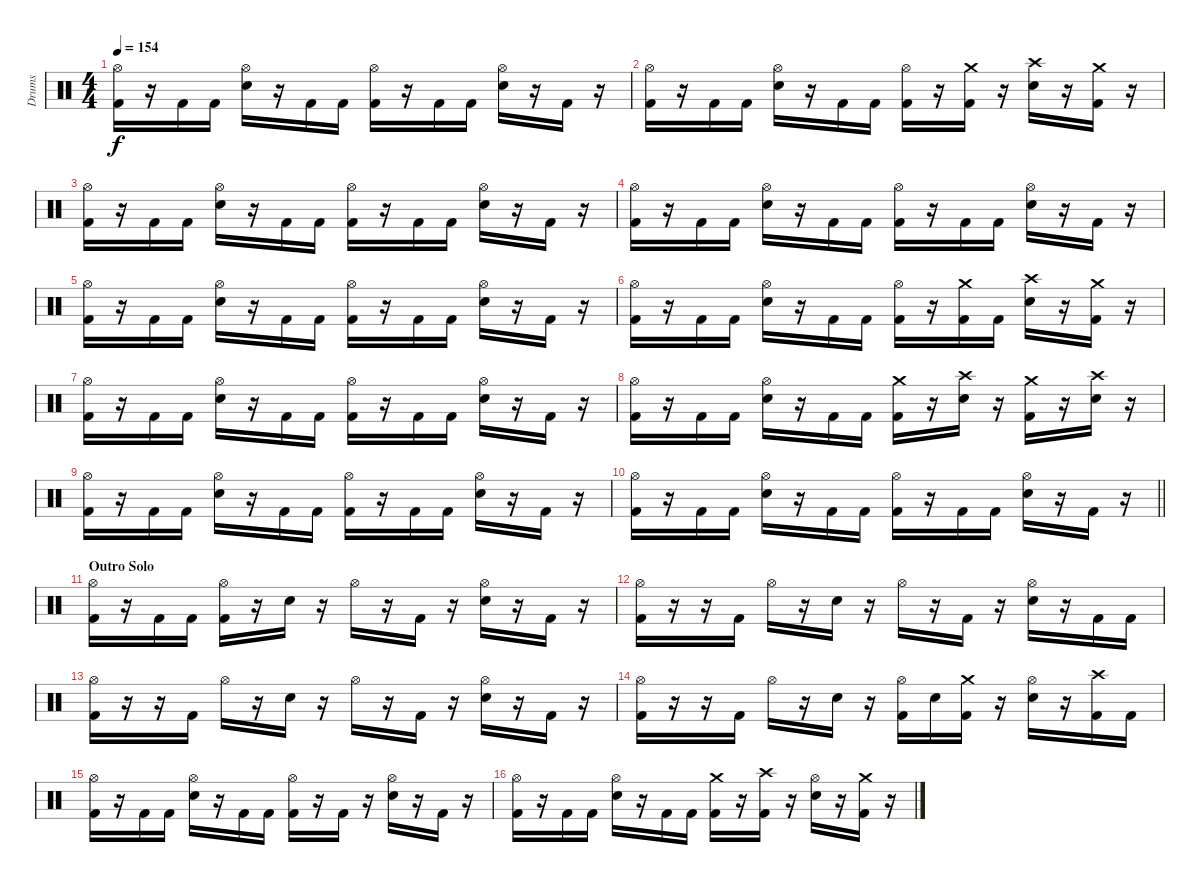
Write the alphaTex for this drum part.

\track ("Drums" "Drums") {instrument percussion}
\staff {score}
\articulation defaults
\ts (4 4)
\tempo 154
\clef neutral
\ks c
("Hi-Hat (open)" "Kick (hit) 2").16{dy f} r.16 "Kick (hit) 2".16 "Kick (hit) 2".16 ("Hi-Hat (open)" "Snare (hit) 2").16 r.16 "Kick (hit) 2".16 "Kick (hit) 2".16 ("Hi-Hat (open)" "Kick (hit) 2").16 r.16 "Kick (hit) 2".16 "Kick (hit) 2".16 ("Hi-Hat (open)" "Snare (hit) 2").16 r.16 "Kick (hit) 2".16 r.16 |
("Hi-Hat (open)" "Kick (hit) 2").16 r.16 "Kick (hit) 2".16 "Kick (hit) 2".16 ("Hi-Hat (open)" "Snare (hit) 2").16 r.16 "Kick (hit) 2".16 "Kick (hit) 2".16 ("Hi-Hat (open)" "Kick (hit) 2").16 r.16 ("Crash medium (hit)" "Kick (hit) 2").16 r.16 ("Crash high (hit)" "Snare (hit) 2").16 r.16 ("Crash medium (hit)" "Kick (hit) 2").16 r.16 |
("Hi-Hat (open)" "Kick (hit) 2").16 r.16 "Kick (hit) 2".16 "Kick (hit) 2".16 ("Hi-Hat (open)" "Snare (hit) 2").16 r.16 "Kick (hit) 2".16 "Kick (hit) 2".16 ("Hi-Hat (open)" "Kick (hit) 2").16 r.16 "Kick (hit) 2".16 "Kick (hit) 2".16 ("Hi-Hat (open)" "Snare (hit) 2").16 r.16 "Kick (hit) 2".16 r.16 |
("Hi-Hat (open)" "Kick (hit) 2").16 r.16 "Kick (hit) 2".16 "Kick (hit) 2".16 ("Hi-Hat (open)" "Snare (hit) 2").16 r.16 "Kick (hit) 2".16 "Kick (hit) 2".16 ("Hi-Hat (open)" "Kick (hit) 2").16 r.16 "Kick (hit) 2".16 "Kick (hit) 2".16 ("Hi-Hat (open)" "Snare (hit) 2").16 r.16 "Kick (hit) 2".16 r.16 |
("Hi-Hat (open)" "Kick (hit) 2").16 r.16 "Kick (hit) 2".16 "Kick (hit) 2".16 ("Hi-Hat (open)" "Snare (hit) 2").16 r.16 "Kick (hit) 2".16 "Kick (hit) 2".16 ("Hi-Hat (open)" "Kick (hit) 2").16 r.16 "Kick (hit) 2".16 "Kick (hit) 2".16 ("Hi-Hat (open)" "Snare (hit) 2").16 r.16 "Kick (hit) 2".16 r.16 |
("Hi-Hat (open)" "Kick (hit) 2").16 r.16 "Kick (hit) 2".16 "Kick (hit) 2".16 ("Hi-Hat (open)" "Snare (hit) 2").16 r.16 "Kick (hit) 2".16 "Kick (hit) 2".16 ("Hi-Hat (open)" "Kick (hit) 2").16 r.16 ("Crash medium (hit)" "Kick (hit) 2").16 "Kick (hit) 2".16 ("Crash high (hit)" "Snare (hit) 2").16 r.16 ("Crash medium (hit)" "Kick (hit) 2").16 r.16 |
("Hi-Hat (open)" "Kick (hit) 2").16 r.16 "Kick (hit) 2".16 "Kick (hit) 2".16 ("Hi-Hat (open)" "Snare (hit) 2").16 r.16 "Kick (hit) 2".16 "Kick (hit) 2".16 ("Hi-Hat (open)" "Kick (hit) 2").16 r.16 "Kick (hit) 2".16 "Kick (hit) 2".16 ("Hi-Hat (open)" "Snare (hit) 2").16 r.16 "Kick (hit) 2".16 r.16 |
("Hi-Hat (open)" "Kick (hit) 2").16 r.16 "Kick (hit) 2".16 "Kick (hit) 2".16 ("Hi-Hat (open)" "Snare (hit) 2").16 r.16 "Kick (hit) 2".16 "Kick (hit) 2".16 ("Crash medium (hit)" "Kick (hit) 2").16 r.16 ("Crash high (hit)" "Snare (hit) 2").16 r.16 ("Crash medium (hit)" "Kick (hit) 2").16 r.16 ("Crash high (hit)" "Snare (hit) 2").16 r.16 |
("Hi-Hat (open)" "Kick (hit) 2").16 r.16 "Kick (hit) 2".16 "Kick (hit) 2".16 ("Hi-Hat (open)" "Snare (hit) 2").16 r.16 "Kick (hit) 2".16 "Kick (hit) 2".16 ("Hi-Hat (open)" "Kick (hit) 2").16 r.16 "Kick (hit) 2".16 "Kick (hit) 2".16 ("Hi-Hat (open)" "Snare (hit) 2").16 r.16 "Kick (hit) 2".16 r.16 |
\barLineRight lightlight
("Hi-Hat (open)" "Kick (hit) 2").16 r.16 "Kick (hit) 2".16 "Kick (hit) 2".16 ("Hi-Hat (open)" "Snare (hit) 2").16 r.16 "Kick (hit) 2".16 "Kick (hit) 2".16 ("Hi-Hat (open)" "Kick (hit) 2").16 r.16 "Kick (hit) 2".16 "Kick (hit) 2".16 ("Hi-Hat (open)" "Snare (hit) 2").16 r.16 "Kick (hit) 2".16 r.16 |
\section ("" "Outro Solo")
("Hi-Hat (open)" "Kick (hit) 2").16 r.16 "Kick (hit) 2".16 "Kick (hit) 2".16 ("Hi-Hat (open)" "Kick (hit) 2").16 r.16 "Snare (hit) 2".16 r.16 "Hi-Hat (open)".16 r.16 "Kick (hit) 2".16 r.16 ("Hi-Hat (open)" "Snare (hit) 2").16 r.16 "Kick (hit) 2".16 r.16 |
("Hi-Hat (open)" "Kick (hit) 2").16 r.16 r.16 "Kick (hit) 2".16 "Hi-Hat (open)".16 r.16 "Snare (hit) 2".16 r.16 "Hi-Hat (open)".16 r.16 "Kick (hit) 2".16 r.16 ("Hi-Hat (open)" "Snare (hit) 2").16 r.16 "Kick (hit) 2".16 "Kick (hit) 2".16 |
("Hi-Hat (open)" "Kick (hit) 2").16 r.16 r.16 "Kick (hit) 2".16 "Hi-Hat (open)".16 r.16 "Snare (hit) 2".16 r.16 "Hi-Hat (open)".16 r.16 "Kick (hit) 2".16 r.16 ("Hi-Hat (open)" "Snare (hit) 2").16 r.16 "Kick (hit) 2".16 r.16 |
("Hi-Hat (open)" "Kick (hit) 2").16 r.16 r.16 "Kick (hit) 2".16 "Hi-Hat (open)".16 r.16 "Snare (hit) 2".16 r.16 ("Hi-Hat (open)" "Kick (hit) 2").16 "Snare (hit) 2".16 ("Crash medium (hit)" "Kick (hit) 2").16 r.16 ("Hi-Hat (open)" "Snare (hit) 2").16 r.16 ("Crash high (hit)" "Kick (hit) 2").16 "Kick (hit) 2".16 |
("Hi-Hat (open)" "Kick (hit) 2").16 r.16 "Kick (hit) 2".16 "Kick (hit) 2".16 ("Hi-Hat (open)" "Snare (hit) 2").16 r.16 "Kick (hit) 2".16 "Kick (hit) 2".16 ("Hi-Hat (open)" "Kick (hit) 2").16 r.16 "Kick (hit) 2".16 r.16 ("Hi-Hat (open)" "Snare (hit) 2").16 r.16 "Kick (hit) 2".16 r.16 |
("Hi-Hat (open)" "Kick (hit) 2").16 r.16 "Kick (hit) 2".16 "Kick (hit) 2".16 ("Hi-Hat (open)" "Snare (hit) 2").16 r.16 "Kick (hit) 2".16 "Kick (hit) 2".16 ("Crash medium (hit)" "Kick (hit) 2").16 r.16 ("Crash high (hit)" "Kick (hit) 2").16 r.16 ("Hi-Hat (open)" "Snare (hit) 2").16 r.16 ("Crash medium (hit)" "Kick (hit) 2").16 r.16
